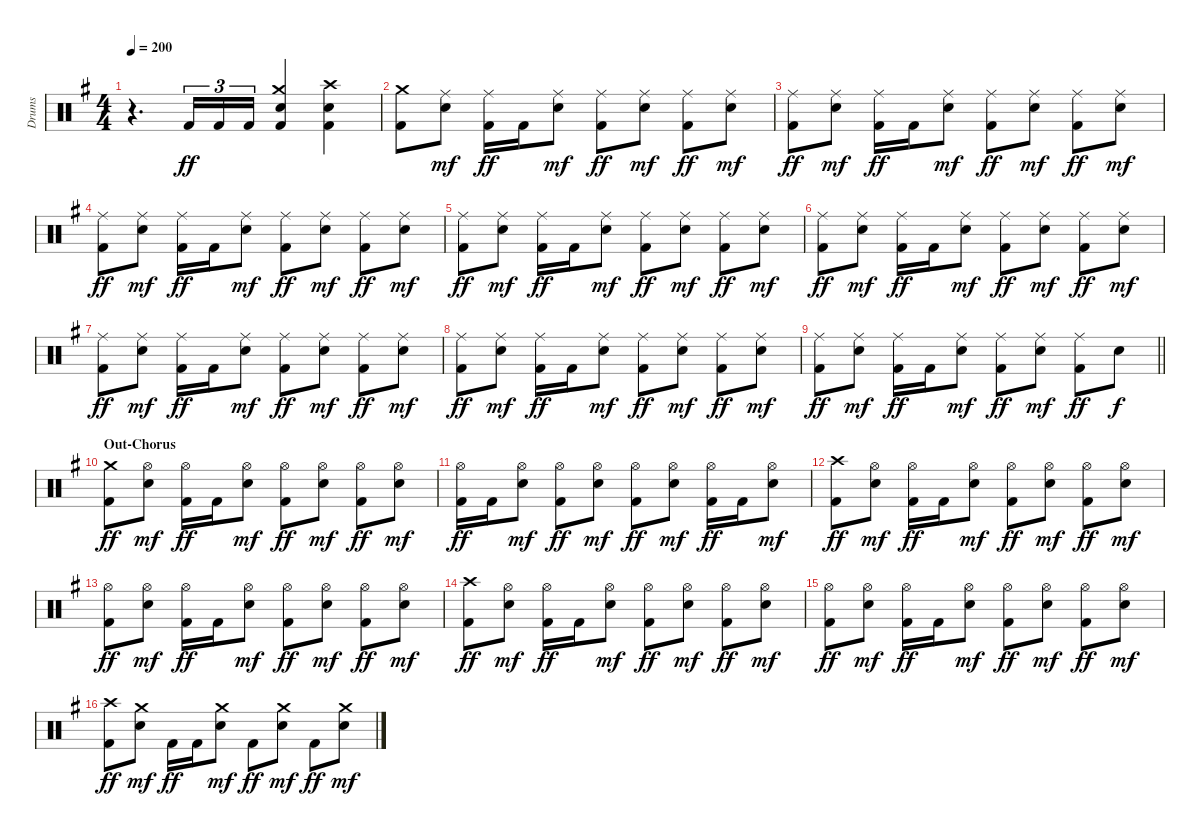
\track ("Drums" "Drums") {instrument percussion}
\staff {score}
\articulation defaults
\ts (4 4)
\tempo 200
\clef neutral
\ks g
r.4{d dy ff} "Kick (hit) 2".16{tu (3 2)} "Kick (hit) 2".16{tu (3 2)} "Kick (hit) 2".16{tu (3 2)} ("Crash medium (hit)" "Snare (hit) 2" "Kick (hit) 2").4 ("Crash high (hit)" "Snare (hit) 2" "Kick (hit) 2").4 |
("Crash medium (hit)" "Kick (hit) 2").8 ("Ride (middle)" "Snare (hit) 2").8{dy mf} ("Ride (middle)" "Kick (hit) 2").16{dy ff} "Kick (hit) 2".16 ("Ride (middle)" "Snare (hit) 2").8{dy mf} ("Ride (middle)" "Kick (hit) 2").8{dy ff} ("Ride (middle)" "Snare (hit) 2").8{dy mf} ("Ride (middle)" "Kick (hit) 2").8{dy ff} ("Ride (middle)" "Snare (hit) 2").8{dy mf} |
("Ride (middle)" "Kick (hit) 2").8{dy ff} ("Ride (middle)" "Snare (hit) 2").8{dy mf} ("Ride (middle)" "Kick (hit) 2").16{dy ff} "Kick (hit) 2".16 ("Ride (middle)" "Snare (hit) 2").8{dy mf} ("Ride (middle)" "Kick (hit) 2").8{dy ff} ("Ride (middle)" "Snare (hit) 2").8{dy mf} ("Ride (middle)" "Kick (hit) 2").8{dy ff} ("Ride (middle)" "Snare (hit) 2").8{dy mf} |
("Ride (middle)" "Kick (hit) 2").8{dy ff} ("Ride (middle)" "Snare (hit) 2").8{dy mf} ("Ride (middle)" "Kick (hit) 2").16{dy ff} "Kick (hit) 2".16 ("Ride (middle)" "Snare (hit) 2").8{dy mf} ("Ride (middle)" "Kick (hit) 2").8{dy ff} ("Ride (middle)" "Snare (hit) 2").8{dy mf} ("Ride (middle)" "Kick (hit) 2").8{dy ff} ("Ride (middle)" "Snare (hit) 2").8{dy mf} |
("Ride (middle)" "Kick (hit) 2").8{dy ff} ("Ride (middle)" "Snare (hit) 2").8{dy mf} ("Ride (middle)" "Kick (hit) 2").16{dy ff} "Kick (hit) 2".16 ("Ride (middle)" "Snare (hit) 2").8{dy mf} ("Ride (middle)" "Kick (hit) 2").8{dy ff} ("Ride (middle)" "Snare (hit) 2").8{dy mf} ("Ride (middle)" "Kick (hit) 2").8{dy ff} ("Ride (middle)" "Snare (hit) 2").8{dy mf} |
("Ride (middle)" "Kick (hit) 2").8{dy ff} ("Ride (middle)" "Snare (hit) 2").8{dy mf} ("Ride (middle)" "Kick (hit) 2").16{dy ff} "Kick (hit) 2".16 ("Ride (middle)" "Snare (hit) 2").8{dy mf} ("Ride (middle)" "Kick (hit) 2").8{dy ff} ("Ride (middle)" "Snare (hit) 2").8{dy mf} ("Ride (middle)" "Kick (hit) 2").8{dy ff} ("Ride (middle)" "Snare (hit) 2").8{dy mf} |
("Ride (middle)" "Kick (hit) 2").8{dy ff} ("Ride (middle)" "Snare (hit) 2").8{dy mf} ("Ride (middle)" "Kick (hit) 2").16{dy ff} "Kick (hit) 2".16 ("Ride (middle)" "Snare (hit) 2").8{dy mf} ("Ride (middle)" "Kick (hit) 2").8{dy ff} ("Ride (middle)" "Snare (hit) 2").8{dy mf} ("Ride (middle)" "Kick (hit) 2").8{dy ff} ("Ride (middle)" "Snare (hit) 2").8{dy mf} |
("Ride (middle)" "Kick (hit) 2").8{dy ff} ("Ride (middle)" "Snare (hit) 2").8{dy mf} ("Ride (middle)" "Kick (hit) 2").16{dy ff} "Kick (hit) 2".16 ("Ride (middle)" "Snare (hit) 2").8{dy mf} ("Ride (middle)" "Kick (hit) 2").8{dy ff} ("Ride (middle)" "Snare (hit) 2").8{dy mf} ("Ride (middle)" "Kick (hit) 2").8{dy ff} ("Ride (middle)" "Snare (hit) 2").8{dy mf} |
\barLineRight lightlight
("Ride (middle)" "Kick (hit) 2").8{dy ff} ("Ride (middle)" "Snare (hit) 2").8{dy mf} ("Ride (middle)" "Kick (hit) 2").16{dy ff} "Kick (hit) 2".16 ("Ride (middle)" "Snare (hit) 2").8{dy mf} ("Ride (middle)" "Kick (hit) 2").8{dy ff} ("Ride (middle)" "Snare (hit) 2").8{dy mf} ("Ride (middle)" "Kick (hit) 2").8{dy ff} "Snare (hit) 2".8{dy f} |
\section ("" "Out-Chorus")
("Crash medium (hit)" "Kick (hit) 2").8{dy ff} ("Hi-Hat (open)" "Snare (hit) 2").8{dy mf} ("Hi-Hat (open)" "Kick (hit) 2").16{dy ff} "Kick (hit) 2".16 ("Hi-Hat (open)" "Snare (hit) 2").8{dy mf} ("Hi-Hat (open)" "Kick (hit) 2").8{dy ff} ("Hi-Hat (open)" "Snare (hit) 2").8{dy mf} ("Hi-Hat (open)" "Kick (hit) 2").8{dy ff} ("Hi-Hat (open)" "Snare (hit) 2").8{dy mf} |
("Hi-Hat (open)" "Kick (hit) 2").16{dy ff} "Kick (hit) 2".16 ("Hi-Hat (open)" "Snare (hit) 2").8{dy mf} ("Hi-Hat (open)" "Kick (hit) 2").8{dy ff} ("Hi-Hat (open)" "Snare (hit) 2").8{dy mf} ("Hi-Hat (open)" "Kick (hit) 2").8{dy ff} ("Hi-Hat (open)" "Snare (hit) 2").8{dy mf} ("Hi-Hat (open)" "Kick (hit) 2").16{dy ff} "Kick (hit) 2".16 ("Hi-Hat (open)" "Snare (hit) 2").8{dy mf} |
("Crash high (hit)" "Kick (hit) 2").8{dy ff} ("Hi-Hat (open)" "Snare (hit) 2").8{dy mf} ("Hi-Hat (open)" "Kick (hit) 2").16{dy ff} "Kick (hit) 2".16 ("Hi-Hat (open)" "Snare (hit) 2").8{dy mf} ("Hi-Hat (open)" "Kick (hit) 2").8{dy ff} ("Hi-Hat (open)" "Snare (hit) 2").8{dy mf} ("Hi-Hat (open)" "Kick (hit) 2").8{dy ff} ("Hi-Hat (open)" "Snare (hit) 2").8{dy mf} |
("Hi-Hat (open)" "Kick (hit) 2").8{dy ff} ("Hi-Hat (open)" "Snare (hit) 2").8{dy mf} ("Hi-Hat (open)" "Kick (hit) 2").16{dy ff} "Kick (hit) 2".16 ("Hi-Hat (open)" "Snare (hit) 2").8{dy mf} ("Hi-Hat (open)" "Kick (hit) 2").8{dy ff} ("Hi-Hat (open)" "Snare (hit) 2").8{dy mf} ("Hi-Hat (open)" "Kick (hit) 2").8{dy ff} ("Hi-Hat (open)" "Snare (hit) 2").8{dy mf} |
("Crash high (hit)" "Kick (hit) 2").8{dy ff} ("Hi-Hat (open)" "Snare (hit) 2").8{dy mf} ("Hi-Hat (open)" "Kick (hit) 2").16{dy ff} "Kick (hit) 2".16 ("Hi-Hat (open)" "Snare (hit) 2").8{dy mf} ("Hi-Hat (open)" "Kick (hit) 2").8{dy ff} ("Hi-Hat (open)" "Snare (hit) 2").8{dy mf} ("Hi-Hat (open)" "Kick (hit) 2").8{dy ff} ("Hi-Hat (open)" "Snare (hit) 2").8{dy mf} |
("Hi-Hat (open)" "Kick (hit) 2").8{dy ff} ("Hi-Hat (open)" "Snare (hit) 2").8{dy mf} ("Hi-Hat (open)" "Kick (hit) 2").16{dy ff} "Kick (hit) 2".16 ("Hi-Hat (open)" "Snare (hit) 2").8{dy mf} ("Hi-Hat (open)" "Kick (hit) 2").8{dy ff} ("Hi-Hat (open)" "Snare (hit) 2").8{dy mf} ("Hi-Hat (open)" "Kick (hit) 2").8{dy ff} ("Hi-Hat (open)" "Snare (hit) 2").8{dy mf} |
("Crash high (hit)" "Kick (hit) 2").8{dy ff} ("Crash medium (hit)" "Snare (hit) 2").8{dy mf} "Kick (hit) 2".16{dy ff} "Kick (hit) 2".16 ("Crash medium (hit)" "Snare (hit) 2").8{dy mf} "Kick (hit) 2".8{dy ff} ("Crash medium (hit)" "Snare (hit) 2").8{dy mf} "Kick (hit) 2".8{dy ff} ("Crash medium (hit)" "Snare (hit) 2").8{dy mf}
